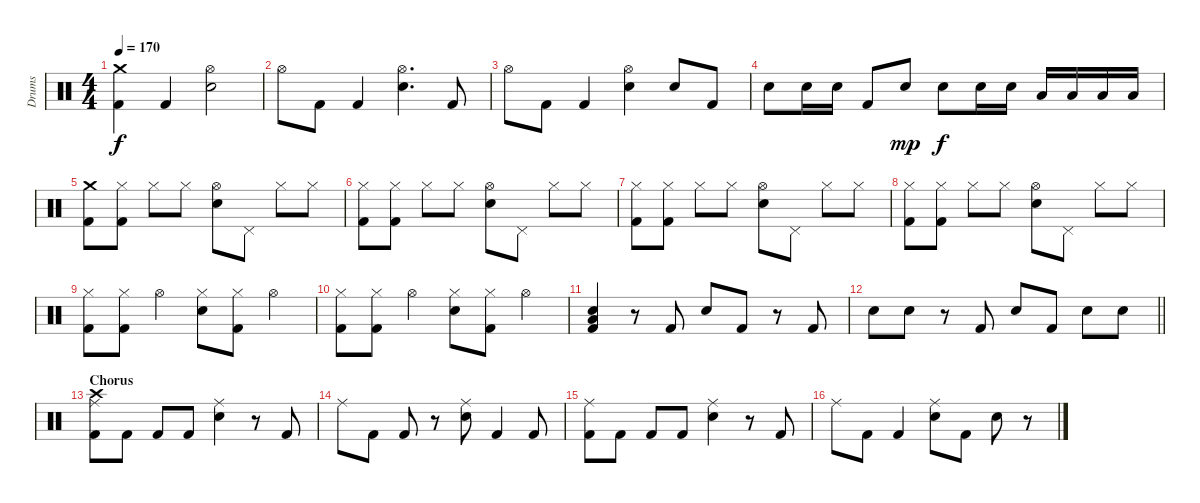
\track ("Drums" "Drums") {instrument percussion}
\staff {score}
\articulation defaults
\ts (4 4)
\tempo 170
\clef neutral
\ks c
("Crash medium (hit)" "Kick (hit) 2").4{dy f} "Kick (hit) 2".4 ("Hi-Hat (open)" "Snare (hit) 2").2 |
"Hi-Hat (open)".8 "Kick (hit) 2".8 "Kick (hit) 2".4 ("Hi-Hat (open)" "Snare (hit) 2").4{d} "Kick (hit) 2".8 |
"Hi-Hat (open)".8 "Kick (hit) 2".8 "Kick (hit) 2".4 ("Hi-Hat (open)" "Snare (hit) 2").4 "Snare (hit) 2".8 "Kick (hit) 2".8 |
"Snare (hit) 2".8 "Snare (hit) 2".16 "Snare (hit) 2".16 "Kick (hit) 2".8 "Snare (hit) 2".8{dy mp} "Snare (hit) 2".8{dy f} "Snare (hit) 2".16 "Snare (hit) 2".16 "Low Tom (hit)".16 "Low Tom (hit)".16 "Low Floor Tom (hit)".16 "Low Floor Tom (hit)".16 |
("Crash medium (hit)" "Kick (hit) 2").8 ("Hi-Hat (closed)" "Kick (hit) 2").8 "Hi-Hat (closed)".8 "Hi-Hat (closed)".8 ("Hi-Hat (open)" "Snare (hit) 2").8 "Pedal Hi-Hat (hit)".8 "Hi-Hat (closed)".8 "Hi-Hat (closed)".8 |
("Hi-Hat (closed)" "Kick (hit) 2").8 ("Hi-Hat (closed)" "Kick (hit) 2").8 "Hi-Hat (closed)".8 "Hi-Hat (closed)".8 ("Hi-Hat (open)" "Snare (hit) 2").8 "Pedal Hi-Hat (hit)".8 "Hi-Hat (closed)".8 "Hi-Hat (closed)".8 |
("Hi-Hat (closed)" "Kick (hit) 2").8 ("Hi-Hat (closed)" "Kick (hit) 2").8 "Hi-Hat (closed)".8 "Hi-Hat (closed)".8 ("Hi-Hat (open)" "Snare (hit) 2").8 "Pedal Hi-Hat (hit)".8 "Hi-Hat (closed)".8 "Hi-Hat (closed)".8 |
("Hi-Hat (closed)" "Kick (hit) 2").8 ("Hi-Hat (closed)" "Kick (hit) 2").8 "Hi-Hat (closed)".8 "Hi-Hat (closed)".8 ("Hi-Hat (open)" "Snare (hit) 2").8 "Pedal Hi-Hat (hit)".8 "Hi-Hat (closed)".8 "Hi-Hat (closed)".8 |
("Hi-Hat (closed)" "Kick (hit) 2").8 ("Hi-Hat (closed)" "Kick (hit) 2").8 "Hi-Hat (open)".4 ("Hi-Hat (closed)" "Snare (hit) 2").8 ("Hi-Hat (closed)" "Kick (hit) 2").8 "Hi-Hat (open)".4 |
("Hi-Hat (closed)" "Kick (hit) 2").8 ("Hi-Hat (closed)" "Kick (hit) 2").8 "Hi-Hat (open)".4 ("Hi-Hat (closed)" "Snare (hit) 2").8 ("Hi-Hat (closed)" "Kick (hit) 2").8 "Hi-Hat (open)".4 |
("Low Floor Tom (hit)" "Snare (hit) 2" "Kick (hit) 2").4 r.8{volume 5} "Kick (hit) 2".8 "Snare (hit) 2".8 "Kick (hit) 2".8 r.8 "Kick (hit) 2".8 |
\barLineRight lightlight "Snare (hit) 2".8 "Snare (hit) 2".8
r.8 "Kick (hit) 2".8 "Snare (hit) 2".8 "Kick (hit) 2".8 "Snare (hit) 2".8 "Snare (hit) 2".8 |
\section ("" "Chorus")
("Ride (middle)" "Crash high (hit)" "Kick (hit) 2").8{volume 13} "Kick (hit) 2".8 "Kick (hit) 2".8 "Kick (hit) 2".8 ("Ride (middle)" "Snare (hit) 2").4 r.8 "Kick (hit) 2".8 |
"Ride (middle)".8 "Kick (hit) 2".8 "Kick (hit) 2".8 r.8 ("Ride (middle)" "Snare (hit) 2").8 "Kick (hit) 2".4 "Kick (hit) 2".8 |
("Ride (middle)" "Kick (hit) 2").8 "Kick (hit) 2".8 "Kick (hit) 2".8 "Kick (hit) 2".8 ("Ride (middle)" "Snare (hit) 2").4 r.8 "Kick (hit) 2".8 |
"Ride (middle)".8 "Kick (hit) 2".8 "Kick (hit) 2".4 ("Ride (middle)" "Snare (hit) 2").8 "Kick (hit) 2".8 "Snare (hit) 2".8 r.8
